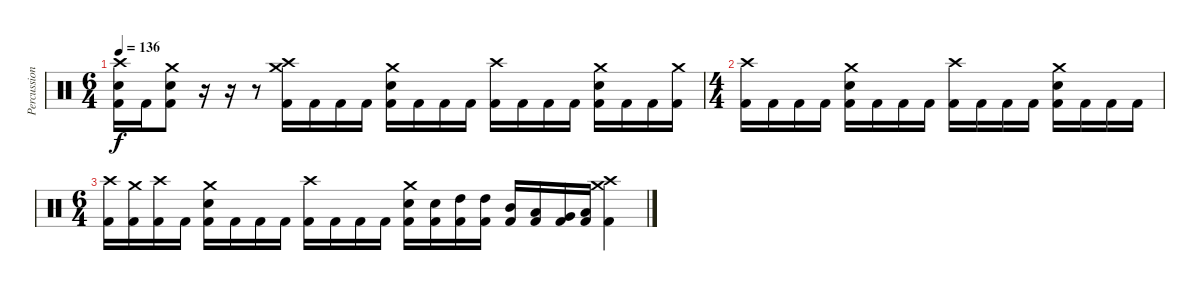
\track ("Percussion" "Percussion") {instrument percussion}
\staff {score}
\articulation defaults
\ts (6 4)
\tempo 136
\clef neutral
\ks c
("Crash high (hit)" "Electric Snare (hit)" "Kick (hit) 2").16{dy f} "Kick (hit) 2".16 ("Crash medium (hit)" "Electric Snare (hit)" "Kick (hit) 2").8 r.16 r.16 r.8 ("Crash medium (hit)" "Crash high (hit)" "Kick (hit) 2").16 "Kick (hit) 2".16 "Kick (hit) 2".16 "Kick (hit) 2".16 ("Crash medium (hit)" "Electric Snare (hit)" "Kick (hit) 2").16 "Kick (hit) 2".16 "Kick (hit) 2".16 "Kick (hit) 2".16 ("Crash high (hit)" "Kick (hit) 2").16 "Kick (hit) 2".16 "Kick (hit) 2".16 "Kick (hit) 2".16 ("Crash medium (hit)" "Electric Snare (hit)" "Kick (hit) 2").16 "Kick (hit) 2".16 "Kick (hit) 2".16 ("Crash medium (hit)" "Kick (hit) 2").16 |
\ts (4 4)
("Crash high (hit)" "Kick (hit) 2").16 "Kick (hit) 2".16 "Kick (hit) 2".16 "Kick (hit) 2".16 ("Crash medium (hit)" "Electric Snare (hit)" "Kick (hit) 2").16 "Kick (hit) 2".16 "Kick (hit) 2".16 "Kick (hit) 2".16 ("Crash high (hit)" "Kick (hit) 2").16 "Kick (hit) 2".16 "Kick (hit) 2".16 "Kick (hit) 2".16 ("Crash medium (hit)" "Electric Snare (hit)" "Kick (hit) 2").16 "Kick (hit) 2".16 "Kick (hit) 2".16 "Kick (hit) 2".16 |
\ts (6 4)
("Crash high (hit)" "Kick (hit) 2").16 ("Crash medium (hit)" "Kick (hit) 2").16 ("Crash high (hit)" "Kick (hit) 2").16 "Kick (hit) 2".16 ("Crash medium (hit)" "Electric Snare (hit)" "Kick (hit) 2").16 "Kick (hit) 2".16 "Kick (hit) 2".16 "Kick (hit) 2".16 ("Crash high (hit)" "Kick (hit) 2").16 "Kick (hit) 2".16 "Kick (hit) 2".16 "Kick (hit) 2".16 ("Crash medium (hit)" "Electric Snare (hit)" "Kick (hit) 2").16 ("Electric Snare (hit)" "Kick (hit) 2").16 ("High Tom (hit)" "Kick (hit) 2").16 ("High Tom (hit)" "Kick (hit) 2").16 ("Mid Tom (hit)" "Kick (hit) 2").16 ("Low Tom (hit)" "Kick (hit) 2").16 ("Very Low Tom (hit)" "Kick (hit) 2").16 ("Low Floor Tom (hit)" "Kick (hit) 2").16 ("Crash medium (hit)" "Crash high (hit)" "Kick (hit) 2").4
